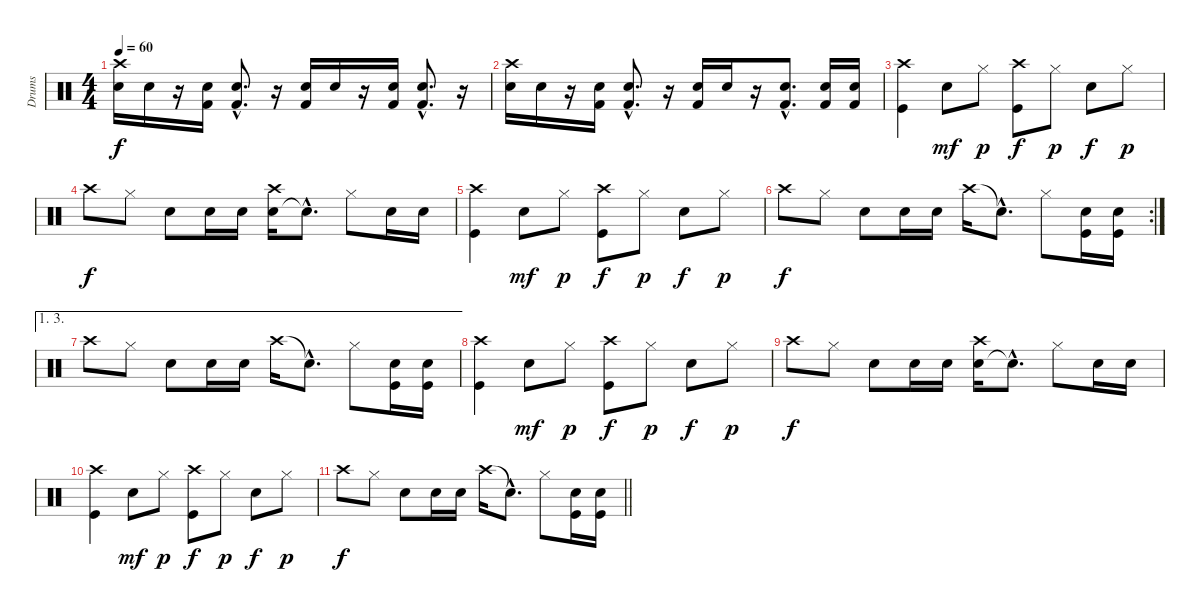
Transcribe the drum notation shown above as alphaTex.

\track ("Drums" "Drums") {instrument percussion}
\staff {score}
\articulation defaults
\ts (4 4)
\tempo 60
\clef neutral
\ks c
("Snare (hit) 2" "Crash high (hit)").16{dy f} "Snare (hit) 2".16 r.16 ("Snare (hit) 2" "Kick (hit) 2").16 ("Snare (hit) 2"{hac} "Kick (hit) 2"{hac}).8{d} r.16 ("Snare (hit) 2" "Kick (hit) 2").16 "Snare (hit) 2".16 r.16 ("Snare (hit) 2" "Kick (hit) 2").16 ("Snare (hit) 2"{hac} "Kick (hit) 2"{hac}).8{d} r.16 |
("Snare (hit) 2" "Crash high (hit)").16 "Snare (hit) 2".16 r.16 ("Snare (hit) 2" "Kick (hit) 2").16 ("Snare (hit) 2"{hac} "Kick (hit) 2"{hac}).8{d} r.16 ("Snare (hit) 2" "Kick (hit) 2").16 "Snare (hit) 2".16 r.16 ("Snare (hit) 2"{hac} "Kick (hit) 2"{hac}).8{d} ("Snare (hit) 2" "Kick (hit) 2").16 ("Snare (hit) 2" "Kick (hit) 2").16 |
("Crash high (hit)" "Kick (hit)").4 "Snare (hit) 2".8{dy mf} "Hi-Hat (closed)".8{dy p} ("Crash high (hit)" "Kick (hit)").8{dy f} "Hi-Hat (closed)".8{dy p} "Snare (hit) 2".8{dy f} "Hi-Hat (closed)".8{dy p} |
"Crash high (hit)".8{dy f} "Hi-Hat (closed)".8 "Snare (hit) 2".8 "Snare (hit) 2".16 "Snare (hit) 2".16 ("Snare (hit) 2" "Crash high (hit)").16 "Snare (hit) 2"{hac t}.8{d} "Hi-Hat (closed)".8 "Snare (hit) 2".16 "Snare (hit) 2".16 |
("Crash high (hit)" "Kick (hit)").4 "Snare (hit) 2".8{dy mf} "Hi-Hat (closed)".8{dy p} ("Crash high (hit)" "Kick (hit)").8{dy f} "Hi-Hat (closed)".8{dy p} "Snare (hit) 2".8{dy f} "Hi-Hat (closed)".8{dy p} |
\rc 2 "Crash high (hit)".8{dy f} "Hi-Hat (closed)".8 "Snare (hit) 2".8 "Snare (hit) 2".16 "Snare (hit) 2".16 "Crash high (hit)".16 "Snare (hit) 2"{hac t}.8{d} "Hi-Hat (closed)".8
("Kick (hit)" "Snare (hit) 2").16 ("Kick (hit)" "Snare (hit) 2").16 |
\ae (1 3)
"Crash high (hit)".8 "Hi-Hat (closed)".8 "Snare (hit) 2".8 "Snare (hit) 2".16 "Snare (hit) 2".16 "Crash high (hit)".16 "Snare (hit) 2"{hac t}.8{d} "Hi-Hat (closed)".8 ("Kick (hit)" "Snare (hit) 2").16 ("Kick (hit)" "Snare (hit) 2").16 |
("Crash high (hit)" "Kick (hit)").4 "Snare (hit) 2".8{dy mf} "Hi-Hat (closed)".8{dy p} ("Crash high (hit)" "Kick (hit)").8{dy f} "Hi-Hat (closed)".8{dy p} "Snare (hit) 2".8{dy f} "Hi-Hat (closed)".8{dy p} |
"Crash high (hit)".8{dy f} "Hi-Hat (closed)".8 "Snare (hit) 2".8 "Snare (hit) 2".16 "Snare (hit) 2".16 ("Snare (hit) 2" "Crash high (hit)").16 "Snare (hit) 2"{hac t}.8{d} "Hi-Hat (closed)".8 "Snare (hit) 2".16 "Snare (hit) 2".16 |
("Crash high (hit)" "Kick (hit)").4 "Snare (hit) 2".8{dy mf} "Hi-Hat (closed)".8{dy p} ("Crash high (hit)" "Kick (hit)").8{dy f} "Hi-Hat (closed)".8{dy p} "Snare (hit) 2".8{dy f} "Hi-Hat (closed)".8{dy p} |
\barLineRight lightlight "Crash high (hit)".8{dy f} "Hi-Hat (closed)".8 "Snare (hit) 2".8 "Snare (hit) 2".16 "Snare (hit) 2".16 "Crash high (hit)".16 "Snare (hit) 2"{hac t}.8{d} "Hi-Hat (closed)".8
("Kick (hit)" "Snare (hit) 2").16 ("Kick (hit)" "Snare (hit) 2").16
